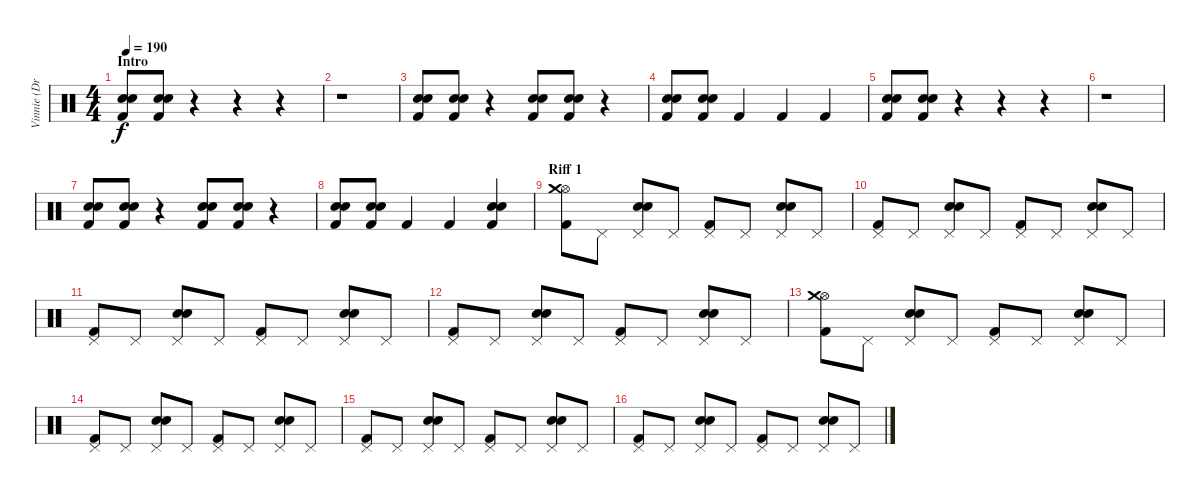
\track ("Vinnie (Drums)" "Vinnie (Dr") {instrument percussion}
\staff {score}
\articulation defaults
\ts (4 4)
\section ("" "Intro")
\tempo 190
\clef neutral
\ks c
("Kick (hit) 2" "Snare (hit) 2" "Electric Snare (hit)").8{dy f volume 11} ("Kick (hit) 2" "Snare (hit) 2" "Electric Snare (hit)").8 r.4 r.4 r.4 |
r.1 |
("Kick (hit) 2" "Snare (hit) 2" "Electric Snare (hit)").8 ("Kick (hit) 2" "Snare (hit) 2" "Electric Snare (hit)").8 r.4 ("Kick (hit) 2" "Snare (hit) 2" "Electric Snare (hit)").8 ("Kick (hit) 2" "Snare (hit) 2" "Electric Snare (hit)").8 r.4 |
("Kick (hit) 2" "Snare (hit) 2" "Electric Snare (hit)").8 ("Kick (hit) 2" "Snare (hit) 2" "Electric Snare (hit)").8 "Kick (hit) 2".4 "Kick (hit) 2".4 "Kick (hit) 2".4 |
("Kick (hit) 2" "Snare (hit) 2" "Electric Snare (hit)").8 ("Kick (hit) 2" "Snare (hit) 2" "Electric Snare (hit)").8 r.4 r.4 r.4 |
r.1 |
("Kick (hit) 2" "Snare (hit) 2" "Electric Snare (hit)").8 ("Kick (hit) 2" "Snare (hit) 2" "Electric Snare (hit)").8 r.4 ("Kick (hit) 2" "Snare (hit) 2" "Electric Snare (hit)").8 ("Kick (hit) 2" "Snare (hit) 2" "Electric Snare (hit)").8 r.4 |
("Kick (hit) 2" "Snare (hit) 2" "Electric Snare (hit)").8 ("Kick (hit) 2" "Snare (hit) 2" "Electric Snare (hit)").8 "Kick (hit) 2".4 "Kick (hit) 2".4 ("Kick (hit) 2" "Snare (hit) 2" "Electric Snare (hit)").4 |
\section ("" "Riff 1")
("Kick (hit) 2" "Hi-Hat (open)" "Crash medium (hit)").8 "Pedal Hi-Hat (hit)".8 ("Snare (hit) 2" "Electric Snare (hit)" "Pedal Hi-Hat (hit)").8 "Pedal Hi-Hat (hit)".8 ("Kick (hit) 2" "Pedal Hi-Hat (hit)").8 "Pedal Hi-Hat (hit)".8 ("Snare (hit) 2" "Electric Snare (hit)" "Pedal Hi-Hat (hit)").8 "Pedal Hi-Hat (hit)".8 |
("Kick (hit) 2" "Pedal Hi-Hat (hit)").8 "Pedal Hi-Hat (hit)".8 ("Snare (hit) 2" "Electric Snare (hit)" "Pedal Hi-Hat (hit)").8 "Pedal Hi-Hat (hit)".8 ("Kick (hit) 2" "Pedal Hi-Hat (hit)").8 "Pedal Hi-Hat (hit)".8 ("Snare (hit) 2" "Electric Snare (hit)" "Pedal Hi-Hat (hit)").8 "Pedal Hi-Hat (hit)".8 |
("Kick (hit) 2" "Pedal Hi-Hat (hit)").8 "Pedal Hi-Hat (hit)".8 ("Snare (hit) 2" "Electric Snare (hit)" "Pedal Hi-Hat (hit)").8 "Pedal Hi-Hat (hit)".8 ("Kick (hit) 2" "Pedal Hi-Hat (hit)").8 "Pedal Hi-Hat (hit)".8 ("Snare (hit) 2" "Electric Snare (hit)" "Pedal Hi-Hat (hit)").8 "Pedal Hi-Hat (hit)".8 |
("Kick (hit) 2" "Pedal Hi-Hat (hit)").8 "Pedal Hi-Hat (hit)".8 ("Snare (hit) 2" "Electric Snare (hit)" "Pedal Hi-Hat (hit)").8 "Pedal Hi-Hat (hit)".8 ("Kick (hit) 2" "Pedal Hi-Hat (hit)").8 "Pedal Hi-Hat (hit)".8 ("Snare (hit) 2" "Electric Snare (hit)" "Pedal Hi-Hat (hit)").8 "Pedal Hi-Hat (hit)".8 |
("Kick (hit) 2" "Hi-Hat (open)" "Crash medium (hit)").8 "Pedal Hi-Hat (hit)".8 ("Snare (hit) 2" "Electric Snare (hit)" "Pedal Hi-Hat (hit)").8 "Pedal Hi-Hat (hit)".8 ("Kick (hit) 2" "Pedal Hi-Hat (hit)").8 "Pedal Hi-Hat (hit)".8 ("Snare (hit) 2" "Electric Snare (hit)" "Pedal Hi-Hat (hit)").8 "Pedal Hi-Hat (hit)".8 |
("Kick (hit) 2" "Pedal Hi-Hat (hit)").8 "Pedal Hi-Hat (hit)".8 ("Snare (hit) 2" "Electric Snare (hit)" "Pedal Hi-Hat (hit)").8 "Pedal Hi-Hat (hit)".8 ("Kick (hit) 2" "Pedal Hi-Hat (hit)").8 "Pedal Hi-Hat (hit)".8 ("Snare (hit) 2" "Electric Snare (hit)" "Pedal Hi-Hat (hit)").8 "Pedal Hi-Hat (hit)".8 |
("Kick (hit) 2" "Pedal Hi-Hat (hit)").8 "Pedal Hi-Hat (hit)".8 ("Snare (hit) 2" "Electric Snare (hit)" "Pedal Hi-Hat (hit)").8 "Pedal Hi-Hat (hit)".8 ("Kick (hit) 2" "Pedal Hi-Hat (hit)").8 "Pedal Hi-Hat (hit)".8 ("Snare (hit) 2" "Electric Snare (hit)" "Pedal Hi-Hat (hit)").8 "Pedal Hi-Hat (hit)".8 |
("Kick (hit) 2" "Pedal Hi-Hat (hit)").8 "Pedal Hi-Hat (hit)".8 ("Snare (hit) 2" "Electric Snare (hit)" "Pedal Hi-Hat (hit)").8 "Pedal Hi-Hat (hit)".8 ("Kick (hit) 2" "Pedal Hi-Hat (hit)").8 "Pedal Hi-Hat (hit)".8 ("Snare (hit) 2" "Electric Snare (hit)" "Pedal Hi-Hat (hit)").8 "Pedal Hi-Hat (hit)".8
